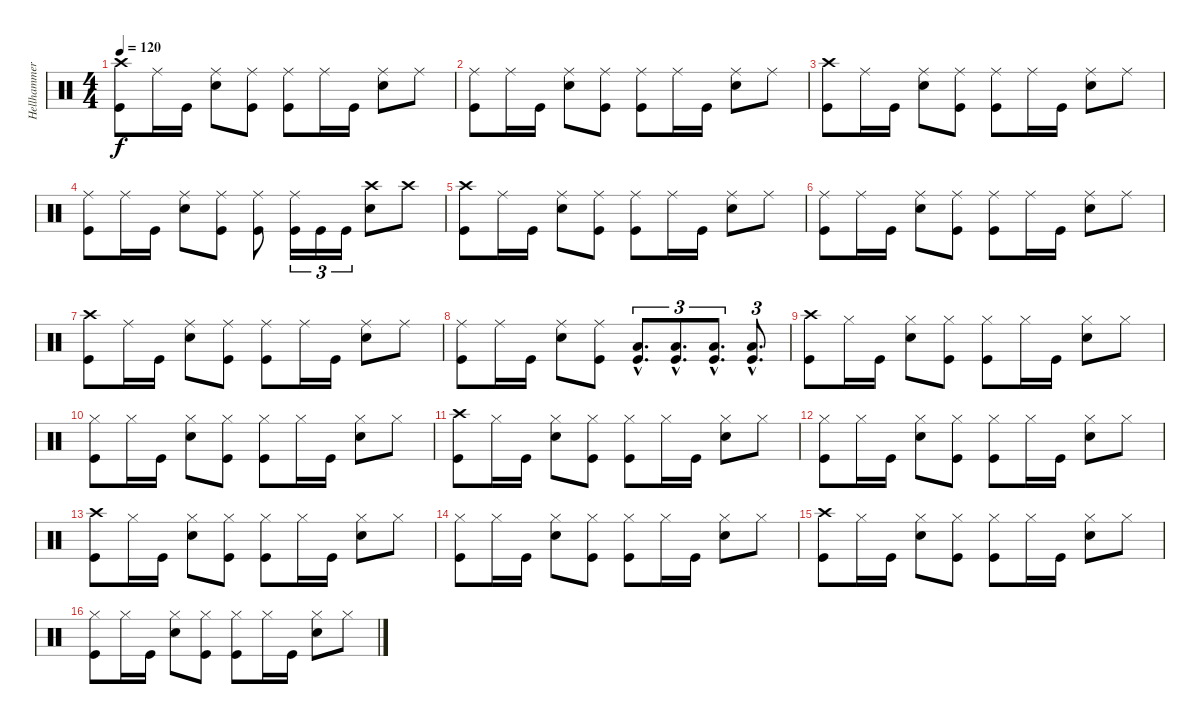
\track ("Hellhammer" "Hellhammer") {instrument percussion}
\staff {score}
\articulation defaults
\ts (4 4)
\tempo 120
\clef neutral
\ks c
("Crash high (hit)" "Kick (hit)").8{dy f} "Ride (middle)".16 "Kick (hit)".16 ("Ride (middle)" "Electric Snare (hit)").8 ("Ride (middle)" "Kick (hit)").8 ("Ride (middle)" "Kick (hit)").8 "Ride (middle)".16 "Kick (hit)".16 ("Ride (middle)" "Electric Snare (hit)").8 "Ride (middle)".8 |
("Ride (middle)" "Kick (hit)").8 "Ride (middle)".16 "Kick (hit)".16 ("Ride (middle)" "Electric Snare (hit)").8 ("Ride (middle)" "Kick (hit)").8 ("Ride (middle)" "Kick (hit)").8 "Ride (middle)".16 "Kick (hit)".16 ("Ride (middle)" "Electric Snare (hit)").8 "Ride (middle)".8 |
("Crash high (hit)" "Kick (hit)").8 "Ride (middle)".16 "Kick (hit)".16 ("Ride (middle)" "Electric Snare (hit)").8 ("Ride (middle)" "Kick (hit)").8 ("Ride (middle)" "Kick (hit)").8 "Ride (middle)".16 "Kick (hit)".16 ("Ride (middle)" "Electric Snare (hit)").8 "Ride (middle)".8 |
("Ride (middle)" "Kick (hit)").8 "Ride (middle)".16 "Kick (hit)".16 ("Ride (middle)" "Electric Snare (hit)").8 ("Ride (middle)" "Kick (hit)").8 ("Ride (middle)" "Kick (hit)").8 ("Ride (middle)" "Kick (hit)").16{tu (3 2)} "Kick (hit)".16{tu (3 2)} "Kick (hit)".16{tu (3 2)} ("Crash high (hit)" "Electric Snare (hit)").8 "Crash high (hit)".8 |
("Crash high (hit)" "Kick (hit)").8 "Ride (middle)".16 "Kick (hit)".16 ("Ride (middle)" "Electric Snare (hit)").8 ("Ride (middle)" "Kick (hit)").8 ("Ride (middle)" "Kick (hit)").8 "Ride (middle)".16 "Kick (hit)".16 ("Ride (middle)" "Electric Snare (hit)").8 "Ride (middle)".8 |
("Ride (middle)" "Kick (hit)").8 "Ride (middle)".16 "Kick (hit)".16 ("Ride (middle)" "Electric Snare (hit)").8 ("Ride (middle)" "Kick (hit)").8 ("Ride (middle)" "Kick (hit)").8 "Ride (middle)".16 "Kick (hit)".16 ("Ride (middle)" "Electric Snare (hit)").8 "Ride (middle)".8 |
("Crash high (hit)" "Kick (hit)").8 "Ride (middle)".16 "Kick (hit)".16 ("Ride (middle)" "Electric Snare (hit)").8 ("Ride (middle)" "Kick (hit)").8 ("Ride (middle)" "Kick (hit)").8 "Ride (middle)".16 "Kick (hit)".16 ("Ride (middle)" "Electric Snare (hit)").8 "Ride (middle)".8 |
("Ride (middle)" "Kick (hit)").8 "Ride (middle)".16 "Kick (hit)".16 ("Ride (middle)" "Electric Snare (hit)").8 ("Ride (middle)" "Kick (hit)").8 ("Low Tom (hit)"{hac} "Kick (hit)"{hac}).8{d tu (3 2)} ("Low Tom (hit)"{hac} "Kick (hit)"{hac}).8{d tu (3 2)} ("Low Tom (hit)"{hac} "Kick (hit)"{hac}).8{d tu (3 2)} ("Low Tom (hit)"{hac} "Kick (hit)"{hac}).8{d tu (3 2)} |
("Crash high (hit)" "Kick (hit)").8 "Hi-Hat (closed)".16 "Kick (hit)".16 ("Hi-Hat (closed)" "Electric Snare (hit)").8 ("Hi-Hat (closed)" "Kick (hit)").8 ("Hi-Hat (closed)" "Kick (hit)").8 "Hi-Hat (closed)".16 "Kick (hit)".16 ("Hi-Hat (closed)" "Electric Snare (hit)").8 "Hi-Hat (closed)".8 |
("Hi-Hat (closed)" "Kick (hit)").8 "Hi-Hat (closed)".16 "Kick (hit)".16 ("Hi-Hat (closed)" "Electric Snare (hit)").8 ("Hi-Hat (closed)" "Kick (hit)").8 ("Hi-Hat (closed)" "Kick (hit)").8 "Hi-Hat (closed)".16 "Kick (hit)".16 ("Hi-Hat (closed)" "Electric Snare (hit)").8 "Hi-Hat (closed)".8 |
("Crash high (hit)" "Kick (hit)").8 "Hi-Hat (closed)".16 "Kick (hit)".16 ("Hi-Hat (closed)" "Electric Snare (hit)").8 ("Hi-Hat (closed)" "Kick (hit)").8 ("Hi-Hat (closed)" "Kick (hit)").8 "Hi-Hat (closed)".16 "Kick (hit)".16 ("Hi-Hat (closed)" "Electric Snare (hit)").8 "Hi-Hat (closed)".8 |
("Hi-Hat (closed)" "Kick (hit)").8 "Hi-Hat (closed)".16 "Kick (hit)".16 ("Hi-Hat (closed)" "Electric Snare (hit)").8 ("Hi-Hat (closed)" "Kick (hit)").8 ("Hi-Hat (closed)" "Kick (hit)").8 "Hi-Hat (closed)".16 "Kick (hit)".16 ("Hi-Hat (closed)" "Electric Snare (hit)").8 "Hi-Hat (closed)".8 |
("Crash high (hit)" "Kick (hit)").8 "Hi-Hat (closed)".16 "Kick (hit)".16 ("Hi-Hat (closed)" "Electric Snare (hit)").8 ("Hi-Hat (closed)" "Kick (hit)").8 ("Hi-Hat (closed)" "Kick (hit)").8 "Hi-Hat (closed)".16 "Kick (hit)".16 ("Hi-Hat (closed)" "Electric Snare (hit)").8 "Hi-Hat (closed)".8 |
("Hi-Hat (closed)" "Kick (hit)").8 "Hi-Hat (closed)".16 "Kick (hit)".16 ("Hi-Hat (closed)" "Electric Snare (hit)").8 ("Hi-Hat (closed)" "Kick (hit)").8 ("Hi-Hat (closed)" "Kick (hit)").8 "Hi-Hat (closed)".16 "Kick (hit)".16 ("Hi-Hat (closed)" "Electric Snare (hit)").8 "Hi-Hat (closed)".8 |
("Crash high (hit)" "Kick (hit)").8 "Hi-Hat (closed)".16 "Kick (hit)".16 ("Hi-Hat (closed)" "Electric Snare (hit)").8 ("Hi-Hat (closed)" "Kick (hit)").8 ("Hi-Hat (closed)" "Kick (hit)").8 "Hi-Hat (closed)".16 "Kick (hit)".16 ("Hi-Hat (closed)" "Electric Snare (hit)").8 "Hi-Hat (closed)".8 |
("Hi-Hat (closed)" "Kick (hit)").8 "Hi-Hat (closed)".16 "Kick (hit)".16 ("Hi-Hat (closed)" "Electric Snare (hit)").8 ("Hi-Hat (closed)" "Kick (hit)").8 ("Hi-Hat (closed)" "Kick (hit)").8 "Hi-Hat (closed)".16 "Kick (hit)".16 ("Hi-Hat (closed)" "Electric Snare (hit)").8 "Hi-Hat (closed)".8
